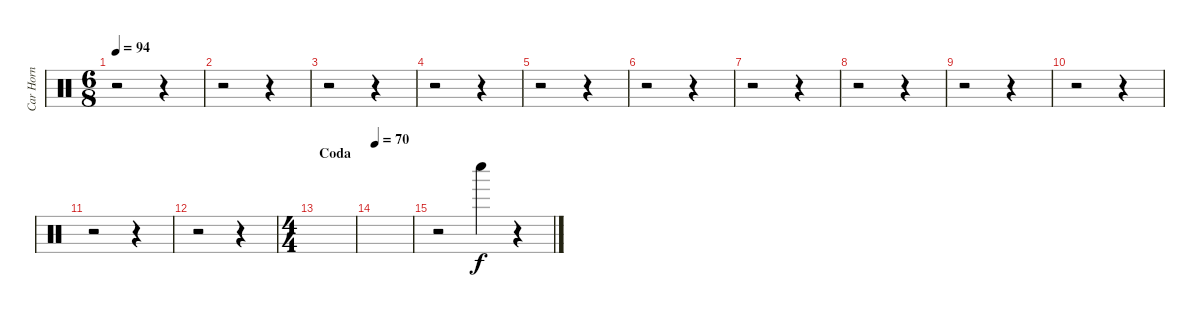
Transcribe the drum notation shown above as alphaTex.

\track ("Car Horn" "Car Horn") {instrument percussion}
\staff {score}
\articulation defaults
\ts (6 8)
\tempo 94
\clef neutral
\ks c
r.2{dy f} r.4 |
r.2 r.4 |
r.2 r.4 |
r.2 r.4 |
r.2 r.4 |
r.2 r.4 |
r.2 r.4 |
r.2 r.4 |
r.2 r.4 |
r.2 r.4 |
r.2 r.4 |
r.2 r.4 |
\ts (4 4)
\section ("" "Coda")
|
\tempo 70
|
r.2{volume 9} "Whistle low (hit)".4 r.4
